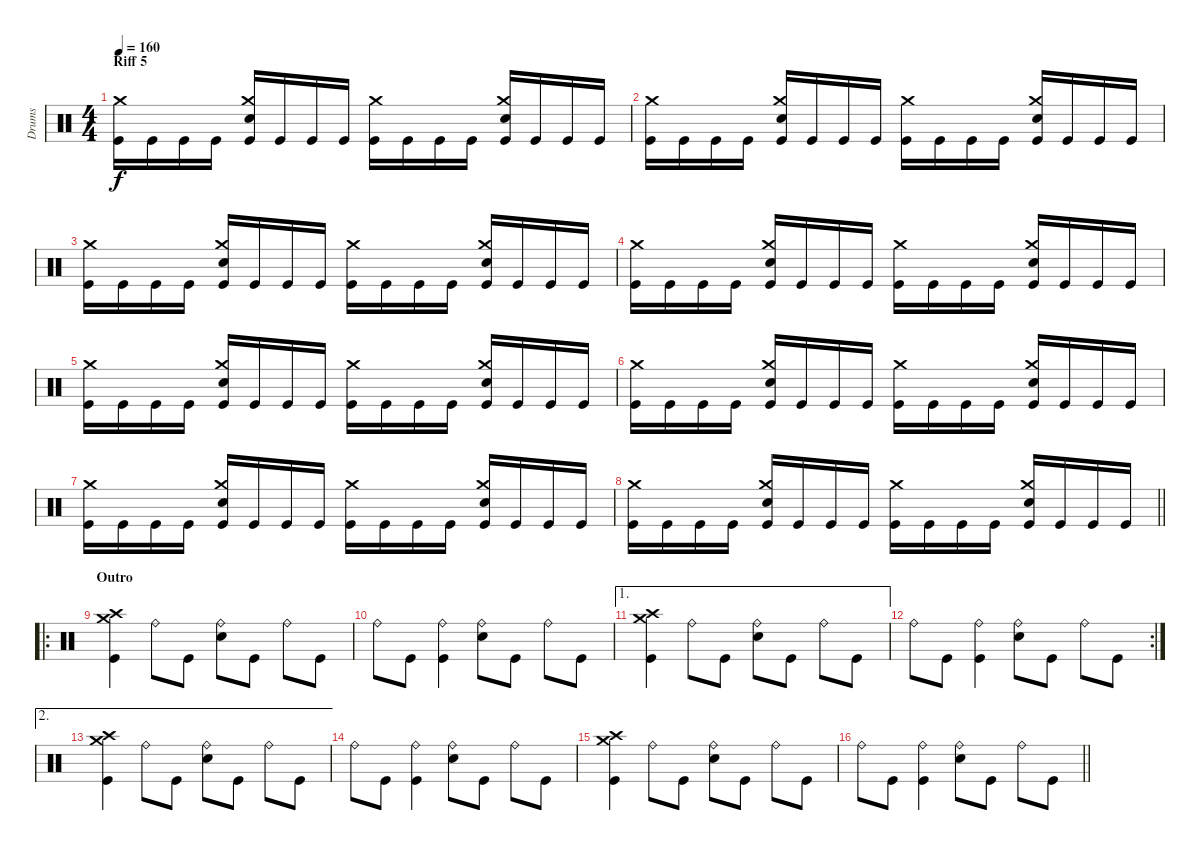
\track ("Drums" "Drums") {instrument percussion}
\staff {score}
\articulation defaults
\ts (4 4)
\section ("" "Riff 5")
\tempo 160
\clef neutral
\ks c
("Kick (hit)" "Crash medium (hit)").16{dy f} "Kick (hit)".16 "Kick (hit)".16 "Kick (hit)".16 ("Kick (hit)" "Crash medium (hit)" "Electric Snare (hit)").16 "Kick (hit)".16 "Kick (hit)".16 "Kick (hit)".16 ("Kick (hit)" "Crash medium (hit)").16 "Kick (hit)".16 "Kick (hit)".16 "Kick (hit)".16 ("Kick (hit)" "Crash medium (hit)" "Electric Snare (hit)").16 "Kick (hit)".16 "Kick (hit)".16 "Kick (hit)".16 |
("Kick (hit)" "Crash medium (hit)").16 "Kick (hit)".16 "Kick (hit)".16 "Kick (hit)".16 ("Kick (hit)" "Crash medium (hit)" "Electric Snare (hit)").16 "Kick (hit)".16 "Kick (hit)".16 "Kick (hit)".16 ("Kick (hit)" "Crash medium (hit)").16 "Kick (hit)".16 "Kick (hit)".16 "Kick (hit)".16 ("Kick (hit)" "Crash medium (hit)" "Electric Snare (hit)").16 "Kick (hit)".16 "Kick (hit)".16 "Kick (hit)".16 |
("Kick (hit)" "Crash medium (hit)").16 "Kick (hit)".16 "Kick (hit)".16 "Kick (hit)".16 ("Kick (hit)" "Crash medium (hit)" "Electric Snare (hit)").16 "Kick (hit)".16 "Kick (hit)".16 "Kick (hit)".16 ("Kick (hit)" "Crash medium (hit)").16 "Kick (hit)".16 "Kick (hit)".16 "Kick (hit)".16 ("Kick (hit)" "Crash medium (hit)" "Electric Snare (hit)").16 "Kick (hit)".16 "Kick (hit)".16 "Kick (hit)".16 |
("Kick (hit)" "Crash medium (hit)").16 "Kick (hit)".16 "Kick (hit)".16 "Kick (hit)".16 ("Kick (hit)" "Crash medium (hit)" "Electric Snare (hit)").16 "Kick (hit)".16 "Kick (hit)".16 "Kick (hit)".16 ("Kick (hit)" "Crash medium (hit)").16 "Kick (hit)".16 "Kick (hit)".16 "Kick (hit)".16 ("Kick (hit)" "Crash medium (hit)" "Electric Snare (hit)").16 "Kick (hit)".16 "Kick (hit)".16 "Kick (hit)".16 |
("Kick (hit)" "Crash medium (hit)").16 "Kick (hit)".16 "Kick (hit)".16 "Kick (hit)".16 ("Kick (hit)" "Crash medium (hit)" "Electric Snare (hit)").16 "Kick (hit)".16 "Kick (hit)".16 "Kick (hit)".16 ("Kick (hit)" "Crash medium (hit)").16 "Kick (hit)".16 "Kick (hit)".16 "Kick (hit)".16 ("Kick (hit)" "Crash medium (hit)" "Electric Snare (hit)").16 "Kick (hit)".16 "Kick (hit)".16 "Kick (hit)".16 |
("Kick (hit)" "Crash medium (hit)").16 "Kick (hit)".16 "Kick (hit)".16 "Kick (hit)".16 ("Kick (hit)" "Crash medium (hit)" "Electric Snare (hit)").16 "Kick (hit)".16 "Kick (hit)".16 "Kick (hit)".16 ("Kick (hit)" "Crash medium (hit)").16 "Kick (hit)".16 "Kick (hit)".16 "Kick (hit)".16 ("Kick (hit)" "Crash medium (hit)" "Electric Snare (hit)").16 "Kick (hit)".16 "Kick (hit)".16 "Kick (hit)".16 |
("Kick (hit)" "Crash medium (hit)").16 "Kick (hit)".16 "Kick (hit)".16 "Kick (hit)".16 ("Kick (hit)" "Crash medium (hit)" "Electric Snare (hit)").16 "Kick (hit)".16 "Kick (hit)".16 "Kick (hit)".16 ("Kick (hit)" "Crash medium (hit)").16 "Kick (hit)".16 "Kick (hit)".16 "Kick (hit)".16 ("Kick (hit)" "Crash medium (hit)" "Electric Snare (hit)").16 "Kick (hit)".16 "Kick (hit)".16 "Kick (hit)".16 |
\barLineRight lightlight
("Kick (hit)" "Crash medium (hit)").16 "Kick (hit)".16 "Kick (hit)".16 "Kick (hit)".16 ("Kick (hit)" "Crash medium (hit)" "Electric Snare (hit)").16 "Kick (hit)".16 "Kick (hit)".16 "Kick (hit)".16 ("Kick (hit)" "Crash medium (hit)").16 "Kick (hit)".16 "Kick (hit)".16 "Kick (hit)".16 ("Kick (hit)" "Crash medium (hit)" "Electric Snare (hit)").16 "Kick (hit)".16 "Kick (hit)".16 "Kick (hit)".16 |
\ro
\section ("" "Outro")
("Kick (hit)" "Crash high (hit)" "Crash medium (hit)").4 "Ride (bell)".8 "Kick (hit)".8 ("Electric Snare (hit)" "Ride (bell)").8 "Kick (hit)".8 "Ride (bell)".8 "Kick (hit)".8 |
"Ride (bell)".8 "Kick (hit)".8 ("Kick (hit)" "Ride (bell)").4 ("Electric Snare (hit)" "Ride (bell)").8 "Kick (hit)".8 "Ride (bell)".8 "Kick (hit)".8 |
\ae 1
("Kick (hit)" "Crash high (hit)" "Crash medium (hit)").4 "Ride (bell)".8 "Kick (hit)".8 ("Electric Snare (hit)" "Ride (bell)").8 "Kick (hit)".8 "Ride (bell)".8 "Kick (hit)".8 |
\rc 2 "Ride (bell)".8 "Kick (hit)".8
("Kick (hit)" "Ride (bell)").4 ("Electric Snare (hit)" "Ride (bell)").8 "Kick (hit)".8 "Ride (bell)".8 "Kick (hit)".8 |
\ae 2
("Kick (hit)" "Crash high (hit)" "Crash medium (hit)").4 "Ride (bell)".8 "Kick (hit)".8 ("Electric Snare (hit)" "Ride (bell)").8 "Kick (hit)".8 "Ride (bell)".8 "Kick (hit)".8 |
"Ride (bell)".8 "Kick (hit)".8 ("Kick (hit)" "Ride (bell)").4 ("Electric Snare (hit)" "Ride (bell)").8 "Kick (hit)".8 "Ride (bell)".8 "Kick (hit)".8 |
("Kick (hit)" "Crash high (hit)" "Crash medium (hit)").4 "Ride (bell)".8 "Kick (hit)".8 ("Electric Snare (hit)" "Ride (bell)").8 "Kick (hit)".8 "Ride (bell)".8 "Kick (hit)".8 |
\barLineRight lightlight "Ride (bell)".8 "Kick (hit)".8
("Kick (hit)" "Ride (bell)").4 ("Electric Snare (hit)" "Ride (bell)").8 "Kick (hit)".8 "Ride (bell)".8 "Kick (hit)".8
